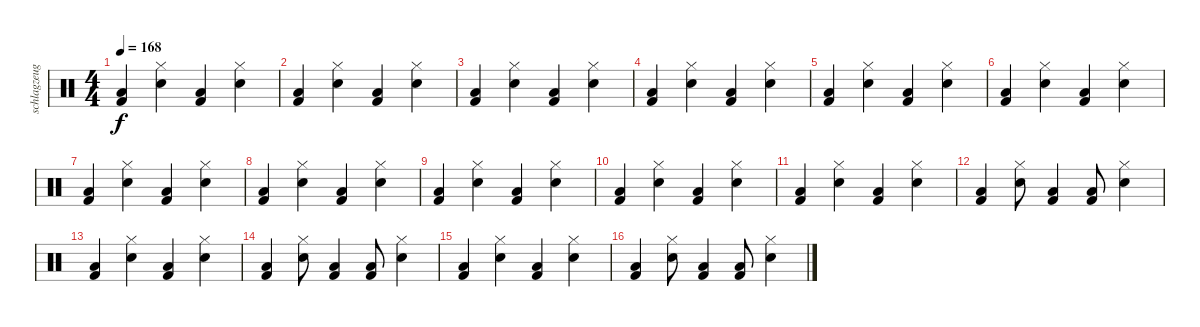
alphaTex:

\track ("schlagzeug" "schlagzeug") {instrument percussion}
\staff {score}
\articulation defaults
\ts (4 4)
\tempo 168
\clef neutral
\ks c
("Low Floor Tom (hit)" "Kick (hit) 2").4{dy f} ("Electric Snare (hit)" "Hi-Hat (closed)").4 ("Low Floor Tom (hit)" "Kick (hit) 2").4 ("Electric Snare (hit)" "Hi-Hat (closed)").4 |
("Low Floor Tom (hit)" "Kick (hit) 2").4 ("Electric Snare (hit)" "Hi-Hat (closed)").4 ("Low Floor Tom (hit)" "Kick (hit) 2").4 ("Electric Snare (hit)" "Hi-Hat (closed)").4 |
("Low Floor Tom (hit)" "Kick (hit) 2").4 ("Electric Snare (hit)" "Hi-Hat (closed)").4 ("Low Floor Tom (hit)" "Kick (hit) 2").4 ("Electric Snare (hit)" "Hi-Hat (closed)").4 |
("Low Floor Tom (hit)" "Kick (hit) 2").4 ("Electric Snare (hit)" "Hi-Hat (closed)").4 ("Low Floor Tom (hit)" "Kick (hit) 2").4 ("Electric Snare (hit)" "Hi-Hat (closed)").4 |
("Low Floor Tom (hit)" "Kick (hit) 2").4 ("Electric Snare (hit)" "Hi-Hat (closed)").4 ("Low Floor Tom (hit)" "Kick (hit) 2").4 ("Electric Snare (hit)" "Hi-Hat (closed)").4 |
("Low Floor Tom (hit)" "Kick (hit) 2").4 ("Electric Snare (hit)" "Hi-Hat (closed)").4 ("Low Floor Tom (hit)" "Kick (hit) 2").4 ("Electric Snare (hit)" "Hi-Hat (closed)").4 |
("Low Floor Tom (hit)" "Kick (hit) 2").4 ("Electric Snare (hit)" "Hi-Hat (closed)").4 ("Low Floor Tom (hit)" "Kick (hit) 2").4 ("Electric Snare (hit)" "Hi-Hat (closed)").4 |
("Low Floor Tom (hit)" "Kick (hit) 2").4 ("Electric Snare (hit)" "Hi-Hat (closed)").4 ("Low Floor Tom (hit)" "Kick (hit) 2").4 ("Electric Snare (hit)" "Hi-Hat (closed)").4 |
("Low Floor Tom (hit)" "Kick (hit) 2").4 ("Electric Snare (hit)" "Hi-Hat (closed)").4 ("Low Floor Tom (hit)" "Kick (hit) 2").4 ("Electric Snare (hit)" "Hi-Hat (closed)").4 |
("Low Floor Tom (hit)" "Kick (hit) 2").4 ("Electric Snare (hit)" "Hi-Hat (closed)").4 ("Low Floor Tom (hit)" "Kick (hit) 2").4 ("Electric Snare (hit)" "Hi-Hat (closed)").4 |
("Low Floor Tom (hit)" "Kick (hit) 2").4 ("Electric Snare (hit)" "Hi-Hat (closed)").4 ("Low Floor Tom (hit)" "Kick (hit) 2").4 ("Electric Snare (hit)" "Hi-Hat (closed)").4 |
("Low Floor Tom (hit)" "Kick (hit) 2").4 ("Electric Snare (hit)" "Hi-Hat (closed)").8 ("Low Floor Tom (hit)" "Kick (hit) 2").4 ("Low Floor Tom (hit)" "Kick (hit) 2").8 ("Electric Snare (hit)" "Hi-Hat (closed)").4 |
("Low Floor Tom (hit)" "Kick (hit) 2").4 ("Electric Snare (hit)" "Hi-Hat (closed)").4 ("Low Floor Tom (hit)" "Kick (hit) 2").4 ("Electric Snare (hit)" "Hi-Hat (closed)").4 |
("Low Floor Tom (hit)" "Kick (hit) 2").4 ("Electric Snare (hit)" "Hi-Hat (closed)").8 ("Low Floor Tom (hit)" "Kick (hit) 2").4 ("Low Floor Tom (hit)" "Kick (hit) 2").8 ("Electric Snare (hit)" "Hi-Hat (closed)").4 |
("Low Floor Tom (hit)" "Kick (hit) 2").4 ("Electric Snare (hit)" "Hi-Hat (closed)").4 ("Low Floor Tom (hit)" "Kick (hit) 2").4 ("Electric Snare (hit)" "Hi-Hat (closed)").4 |
("Low Floor Tom (hit)" "Kick (hit) 2").4 ("Electric Snare (hit)" "Hi-Hat (closed)").8 ("Low Floor Tom (hit)" "Kick (hit) 2").4 ("Low Floor Tom (hit)" "Kick (hit) 2").8 ("Electric Snare (hit)" "Hi-Hat (closed)").4
